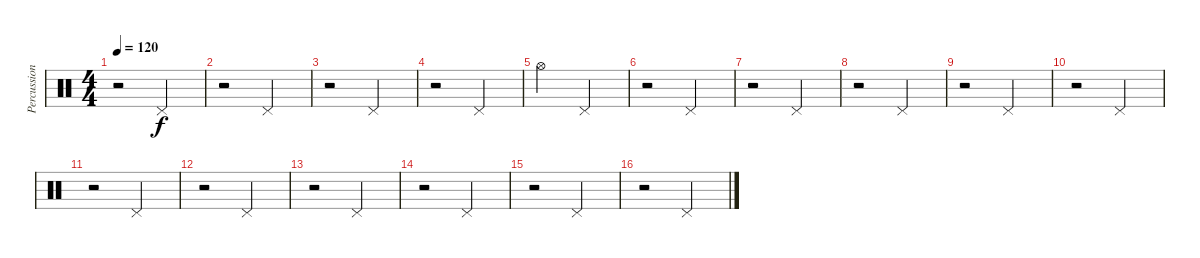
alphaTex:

\track ("Percussion" "Percussion") {instrument percussion}
\staff {score}
\articulation defaults
\ts (4 4)
\tempo 120
\clef neutral
\ks c
r.2{dy f} "Pedal Hi-Hat (hit)".2 |
r.2 "Pedal Hi-Hat (hit)".2 |
r.2 "Pedal Hi-Hat (hit)".2 |
r.2 "Pedal Hi-Hat (hit)".2 |
"Hi-Hat (open)".2 "Pedal Hi-Hat (hit)".2 |
r.2 "Pedal Hi-Hat (hit)".2 |
r.2 "Pedal Hi-Hat (hit)".2 |
r.2 "Pedal Hi-Hat (hit)".2 |
r.2 "Pedal Hi-Hat (hit)".2 |
r.2 "Pedal Hi-Hat (hit)".2 |
r.2 "Pedal Hi-Hat (hit)".2 |
r.2 "Pedal Hi-Hat (hit)".2 |
r.2 "Pedal Hi-Hat (hit)".2 |
r.2 "Pedal Hi-Hat (hit)".2 |
r.2 "Pedal Hi-Hat (hit)".2 |
r.2 "Pedal Hi-Hat (hit)".2
